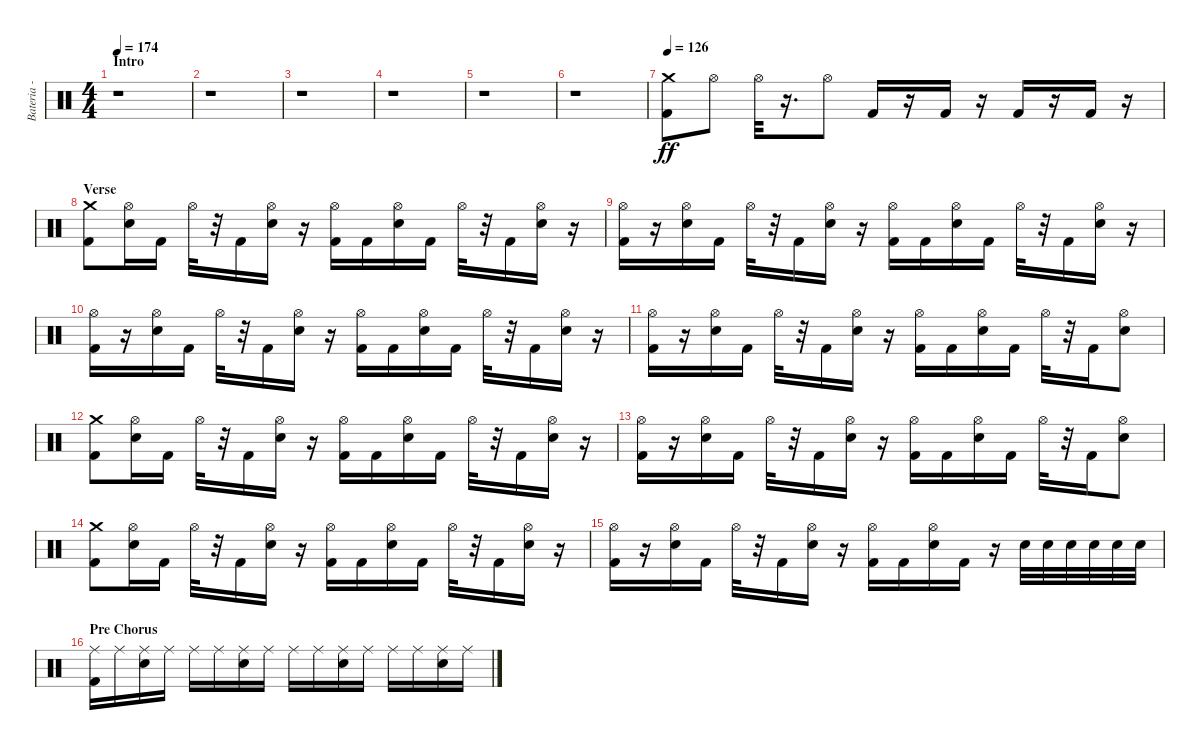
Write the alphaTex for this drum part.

\track ("Bateria - Larzon" "Bateria - ") {instrument percussion}
\staff {score}
\articulation defaults
\ts (4 4)
\section ("" "Intro")
\tempo 174
\clef neutral
\ks c
r.1{dy ff} |
r.1 |
r.1 |
r.1 |
r.1 |
r.1 |
\tempo 126
("Crash medium (hit)" "Kick (hit) 2").8 "Hi-Hat (open)".8 "Hi-Hat (open)".32 r.16{d} "Hi-Hat (open)".8 "Kick (hit) 2".16 r.16 "Kick (hit) 2".16 r.16 "Kick (hit) 2".16 r.16 "Kick (hit) 2".16 r.16 |
\section ("" "Verse")
("Kick (hit) 2" "Crash medium (hit)").8 ("Electric Snare (hit)" "Hi-Hat (open)").16 "Kick (hit) 2".16 "Hi-Hat (open)".32 r.32 "Kick (hit) 2".16 ("Electric Snare (hit)" "Hi-Hat (open)").16 r.16 ("Kick (hit) 2" "Hi-Hat (open)").16 "Kick (hit) 2".16 ("Electric Snare (hit)" "Hi-Hat (open)").16 "Kick (hit) 2".16 "Hi-Hat (open)".32 r.32 "Kick (hit) 2".16 ("Electric Snare (hit)" "Hi-Hat (open)").16 r.16 |
("Kick (hit) 2" "Hi-Hat (open)").16 r.16 ("Electric Snare (hit)" "Hi-Hat (open)").16 "Kick (hit) 2".16 "Hi-Hat (open)".32 r.32 "Kick (hit) 2".16 ("Electric Snare (hit)" "Hi-Hat (open)").16 r.16 ("Kick (hit) 2" "Hi-Hat (open)").16 "Kick (hit) 2".16 ("Electric Snare (hit)" "Hi-Hat (open)").16 "Kick (hit) 2".16 "Hi-Hat (open)".32 r.32 "Kick (hit) 2".16 ("Electric Snare (hit)" "Hi-Hat (open)").16 r.16 |
("Kick (hit) 2" "Hi-Hat (open)").16 r.16 ("Electric Snare (hit)" "Hi-Hat (open)").16 "Kick (hit) 2".16 "Hi-Hat (open)".32 r.32 "Kick (hit) 2".16 ("Electric Snare (hit)" "Hi-Hat (open)").16 r.16 ("Kick (hit) 2" "Hi-Hat (open)").16 "Kick (hit) 2".16 ("Electric Snare (hit)" "Hi-Hat (open)").16 "Kick (hit) 2".16 "Hi-Hat (open)".32 r.32 "Kick (hit) 2".16 ("Electric Snare (hit)" "Hi-Hat (open)").16 r.16 |
("Kick (hit) 2" "Hi-Hat (open)").16 r.16 ("Electric Snare (hit)" "Hi-Hat (open)").16 "Kick (hit) 2".16 "Hi-Hat (open)".32 r.32 "Kick (hit) 2".16 ("Electric Snare (hit)" "Hi-Hat (open)").16 r.16 ("Kick (hit) 2" "Hi-Hat (open)").16 "Kick (hit) 2".16 ("Electric Snare (hit)" "Hi-Hat (open)").16 "Kick (hit) 2".16 "Hi-Hat (open)".32 r.32 "Kick (hit) 2".16 ("Electric Snare (hit)" "Hi-Hat (open)").8 |
("Kick (hit) 2" "Crash medium (hit)").8 ("Electric Snare (hit)" "Hi-Hat (open)").16 "Kick (hit) 2".16 "Hi-Hat (open)".32 r.32 "Kick (hit) 2".16 ("Electric Snare (hit)" "Hi-Hat (open)").16 r.16 ("Kick (hit) 2" "Hi-Hat (open)").16 "Kick (hit) 2".16 ("Electric Snare (hit)" "Hi-Hat (open)").16 "Kick (hit) 2".16 "Hi-Hat (open)".32 r.32 "Kick (hit) 2".16 ("Electric Snare (hit)" "Hi-Hat (open)").16 r.16 |
("Kick (hit) 2" "Hi-Hat (open)").16 r.16 ("Electric Snare (hit)" "Hi-Hat (open)").16 "Kick (hit) 2".16 "Hi-Hat (open)".32 r.32 "Kick (hit) 2".16 ("Electric Snare (hit)" "Hi-Hat (open)").16 r.16 ("Kick (hit) 2" "Hi-Hat (open)").16 "Kick (hit) 2".16 ("Electric Snare (hit)" "Hi-Hat (open)").16 "Kick (hit) 2".16 "Hi-Hat (open)".32 r.32 "Kick (hit) 2".16 ("Electric Snare (hit)" "Hi-Hat (open)").8 |
("Kick (hit) 2" "Crash medium (hit)").8 ("Electric Snare (hit)" "Hi-Hat (open)").16 "Kick (hit) 2".16 "Hi-Hat (open)".32 r.32 "Kick (hit) 2".16 ("Electric Snare (hit)" "Hi-Hat (open)").16 r.16 ("Kick (hit) 2" "Hi-Hat (open)").16 "Kick (hit) 2".16 ("Electric Snare (hit)" "Hi-Hat (open)").16 "Kick (hit) 2".16 "Hi-Hat (open)".32 r.32 "Kick (hit) 2".16 ("Electric Snare (hit)" "Hi-Hat (open)").16 r.16 |
("Kick (hit) 2" "Hi-Hat (open)").16 r.16 ("Electric Snare (hit)" "Hi-Hat (open)").16 "Kick (hit) 2".16 "Hi-Hat (open)".32 r.32 "Kick (hit) 2".16 ("Electric Snare (hit)" "Hi-Hat (open)").16 r.16 ("Kick (hit) 2" "Hi-Hat (open)").16 "Kick (hit) 2".16 ("Electric Snare (hit)" "Hi-Hat (open)").16 "Kick (hit) 2".16 r.16 "Electric Snare (hit)".32 "Electric Snare (hit)".32 "Electric Snare (hit)".32 "Electric Snare (hit)".32 "Electric Snare (hit)".32 "Electric Snare (hit)".32 |
\section ("" "Pre Chorus")
("Kick (hit) 2" "Ride (middle)").16 "Ride (middle)".16 ("Electric Snare (hit)" "Ride (middle)").16 "Ride (middle)".16 "Ride (middle)".16 "Ride (middle)".16 ("Electric Snare (hit)" "Ride (middle)").16 "Ride (middle)".16 "Ride (middle)".16 "Ride (middle)".16 ("Electric Snare (hit)" "Ride (middle)").16 "Ride (middle)".16 "Ride (middle)".16 "Ride (middle)".16 ("Electric Snare (hit)" "Ride (middle)").16 "Ride (middle)".16
